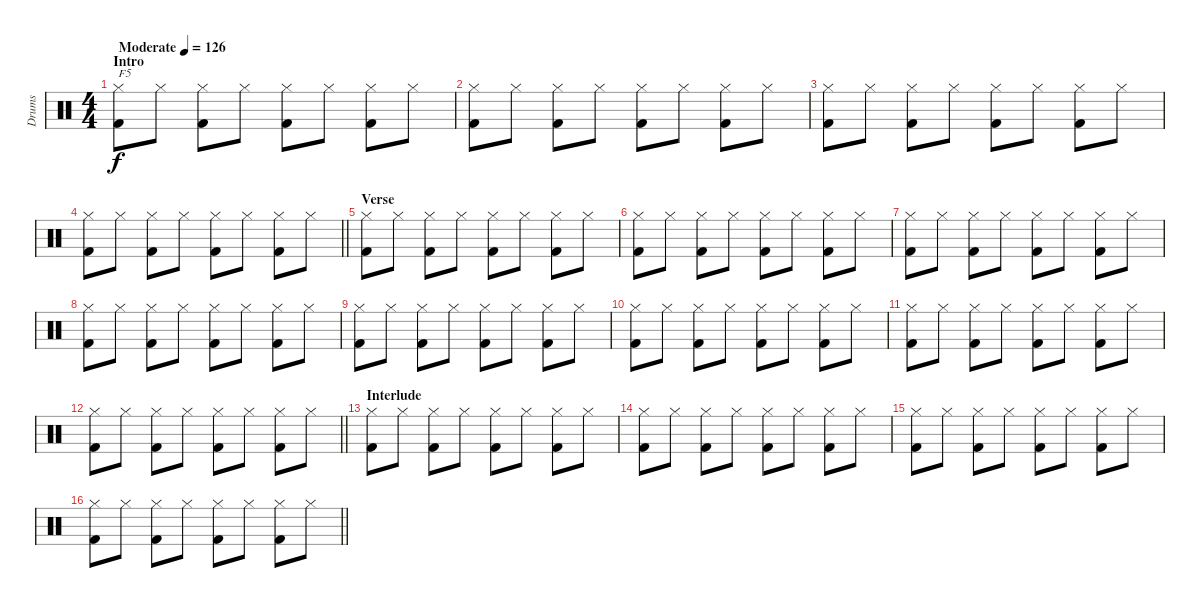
\track ("Drums" "Drums") {instrument percussion}
\staff {score}
\articulation defaults
\ts (4 4)
\section ("" "Intro")
\tempo (126 "Moderate")
\clef neutral
\ks c
("Hi-Hat (closed)" "Kick (hit) 2").8{txt "F5" dy f} "Hi-Hat (closed)".8 ("Hi-Hat (closed)" "Kick (hit) 2").8 "Hi-Hat (closed)".8 ("Hi-Hat (closed)" "Kick (hit) 2").8 "Hi-Hat (closed)".8 ("Hi-Hat (closed)" "Kick (hit) 2").8 "Hi-Hat (closed)".8 |
("Hi-Hat (closed)" "Kick (hit) 2").8 "Hi-Hat (closed)".8 ("Hi-Hat (closed)" "Kick (hit) 2").8 "Hi-Hat (closed)".8 ("Hi-Hat (closed)" "Kick (hit) 2").8 "Hi-Hat (closed)".8 ("Hi-Hat (closed)" "Kick (hit) 2").8 "Hi-Hat (closed)".8 |
("Hi-Hat (closed)" "Kick (hit) 2").8 "Hi-Hat (closed)".8 ("Hi-Hat (closed)" "Kick (hit) 2").8 "Hi-Hat (closed)".8 ("Hi-Hat (closed)" "Kick (hit) 2").8 "Hi-Hat (closed)".8 ("Hi-Hat (closed)" "Kick (hit) 2").8 "Hi-Hat (closed)".8 |
\barLineRight lightlight
("Hi-Hat (closed)" "Kick (hit) 2").8 "Hi-Hat (closed)".8 ("Hi-Hat (closed)" "Kick (hit) 2").8 "Hi-Hat (closed)".8 ("Hi-Hat (closed)" "Kick (hit) 2").8 "Hi-Hat (closed)".8 ("Hi-Hat (closed)" "Kick (hit) 2").8 "Hi-Hat (closed)".8 |
\section ("" "Verse")
("Hi-Hat (closed)" "Kick (hit) 2").8 "Hi-Hat (closed)".8 ("Hi-Hat (closed)" "Kick (hit) 2").8 "Hi-Hat (closed)".8 ("Hi-Hat (closed)" "Kick (hit) 2").8 "Hi-Hat (closed)".8 ("Hi-Hat (closed)" "Kick (hit) 2").8 "Hi-Hat (closed)".8 |
("Hi-Hat (closed)" "Kick (hit) 2").8 "Hi-Hat (closed)".8 ("Hi-Hat (closed)" "Kick (hit) 2").8 "Hi-Hat (closed)".8 ("Hi-Hat (closed)" "Kick (hit) 2").8 "Hi-Hat (closed)".8 ("Hi-Hat (closed)" "Kick (hit) 2").8 "Hi-Hat (closed)".8 |
("Hi-Hat (closed)" "Kick (hit) 2").8 "Hi-Hat (closed)".8 ("Hi-Hat (closed)" "Kick (hit) 2").8 "Hi-Hat (closed)".8 ("Hi-Hat (closed)" "Kick (hit) 2").8 "Hi-Hat (closed)".8 ("Hi-Hat (closed)" "Kick (hit) 2").8 "Hi-Hat (closed)".8 |
("Hi-Hat (closed)" "Kick (hit) 2").8 "Hi-Hat (closed)".8 ("Hi-Hat (closed)" "Kick (hit) 2").8 "Hi-Hat (closed)".8 ("Hi-Hat (closed)" "Kick (hit) 2").8 "Hi-Hat (closed)".8 ("Hi-Hat (closed)" "Kick (hit) 2").8 "Hi-Hat (closed)".8 |
("Hi-Hat (closed)" "Kick (hit) 2").8 "Hi-Hat (closed)".8 ("Hi-Hat (closed)" "Kick (hit) 2").8 "Hi-Hat (closed)".8 ("Hi-Hat (closed)" "Kick (hit) 2").8 "Hi-Hat (closed)".8 ("Hi-Hat (closed)" "Kick (hit) 2").8 "Hi-Hat (closed)".8 |
("Hi-Hat (closed)" "Kick (hit) 2").8 "Hi-Hat (closed)".8 ("Hi-Hat (closed)" "Kick (hit) 2").8 "Hi-Hat (closed)".8 ("Hi-Hat (closed)" "Kick (hit) 2").8 "Hi-Hat (closed)".8 ("Hi-Hat (closed)" "Kick (hit) 2").8 "Hi-Hat (closed)".8 |
("Hi-Hat (closed)" "Kick (hit) 2").8 "Hi-Hat (closed)".8 ("Hi-Hat (closed)" "Kick (hit) 2").8 "Hi-Hat (closed)".8 ("Hi-Hat (closed)" "Kick (hit) 2").8 "Hi-Hat (closed)".8 ("Hi-Hat (closed)" "Kick (hit) 2").8 "Hi-Hat (closed)".8 |
\barLineRight lightlight
("Hi-Hat (closed)" "Kick (hit) 2").8 "Hi-Hat (closed)".8 ("Hi-Hat (closed)" "Kick (hit) 2").8 "Hi-Hat (closed)".8 ("Hi-Hat (closed)" "Kick (hit) 2").8 "Hi-Hat (closed)".8 ("Hi-Hat (closed)" "Kick (hit) 2").8 "Hi-Hat (closed)".8 |
\section ("" "Interlude")
("Hi-Hat (closed)" "Kick (hit) 2").8 "Hi-Hat (closed)".8 ("Hi-Hat (closed)" "Kick (hit) 2").8 "Hi-Hat (closed)".8 ("Hi-Hat (closed)" "Kick (hit) 2").8 "Hi-Hat (closed)".8 ("Hi-Hat (closed)" "Kick (hit) 2").8 "Hi-Hat (closed)".8 |
("Hi-Hat (closed)" "Kick (hit) 2").8 "Hi-Hat (closed)".8 ("Hi-Hat (closed)" "Kick (hit) 2").8 "Hi-Hat (closed)".8 ("Hi-Hat (closed)" "Kick (hit) 2").8 "Hi-Hat (closed)".8 ("Hi-Hat (closed)" "Kick (hit) 2").8 "Hi-Hat (closed)".8 |
("Hi-Hat (closed)" "Kick (hit) 2").8 "Hi-Hat (closed)".8 ("Hi-Hat (closed)" "Kick (hit) 2").8 "Hi-Hat (closed)".8 ("Hi-Hat (closed)" "Kick (hit) 2").8 "Hi-Hat (closed)".8 ("Hi-Hat (closed)" "Kick (hit) 2").8 "Hi-Hat (closed)".8 |
\barLineRight lightlight
("Hi-Hat (closed)" "Kick (hit) 2").8 "Hi-Hat (closed)".8 ("Hi-Hat (closed)" "Kick (hit) 2").8 "Hi-Hat (closed)".8 ("Hi-Hat (closed)" "Kick (hit) 2").8 "Hi-Hat (closed)".8 ("Hi-Hat (closed)" "Kick (hit) 2").8 "Hi-Hat (closed)".8
